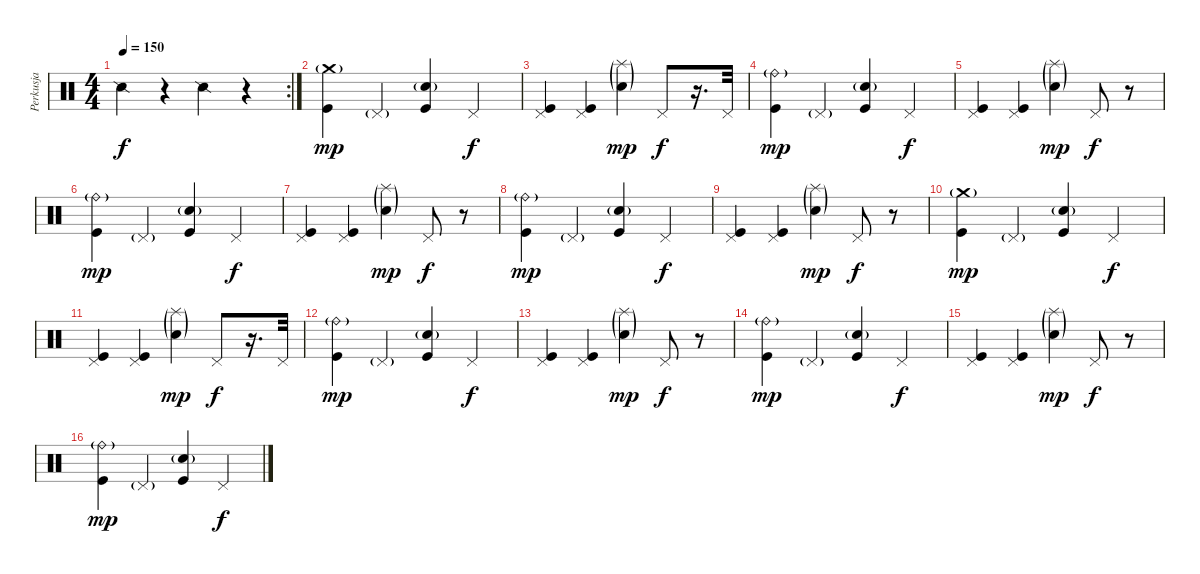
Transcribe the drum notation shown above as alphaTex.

\track ("Perkusja" "Perkusja") {instrument percussion}
\staff {score}
\articulation defaults
\rc 2
\ts (4 4)
\tempo 150
\clef neutral
\ks c "Snare (side stick) 2".4{dy f}
r.4 "Snare (side stick) 2".4 r.4 |
("Crash medium (hit)"{g} "Kick (hit)").4{dy mp} "Pedal Hi-Hat (hit)"{g}.4 ("Snare (hit) 2"{g} "Kick (hit)").4 "Pedal Hi-Hat (hit)".4{dy f} |
("Pedal Hi-Hat (hit)" "Kick (hit)").4 ("Pedal Hi-Hat (hit)" "Kick (hit)").4 ("Splash (hit)"{g} "Snare (hit) 2"{g}).4{dy mp} "Pedal Hi-Hat (hit)".8{dy f} r.16{d} "Pedal Hi-Hat (hit)".32 |
("Ride (bell)"{g} "Kick (hit)").4{dy mp} "Pedal Hi-Hat (hit)"{g}.4 ("Snare (hit) 2"{g} "Kick (hit)").4 "Pedal Hi-Hat (hit)".4{dy f} |
("Pedal Hi-Hat (hit)" "Kick (hit)").4 ("Pedal Hi-Hat (hit)" "Kick (hit)").4 ("Splash (hit)"{g} "Snare (hit) 2"{g}).4{dy mp} "Pedal Hi-Hat (hit)".8{dy f} r.8 |
("Ride (bell)"{g} "Kick (hit)").4{dy mp} "Pedal Hi-Hat (hit)"{g}.4 ("Snare (hit) 2"{g} "Kick (hit)").4 "Pedal Hi-Hat (hit)".4{dy f} |
("Pedal Hi-Hat (hit)" "Kick (hit)").4 ("Pedal Hi-Hat (hit)" "Kick (hit)").4 ("Splash (hit)"{g} "Snare (hit) 2"{g}).4{dy mp} "Pedal Hi-Hat (hit)".8{dy f} r.8 |
("Ride (bell)"{g} "Kick (hit)").4{dy mp} "Pedal Hi-Hat (hit)"{g}.4 ("Snare (hit) 2"{g} "Kick (hit)").4 "Pedal Hi-Hat (hit)".4{dy f} |
("Pedal Hi-Hat (hit)" "Kick (hit)").4 ("Pedal Hi-Hat (hit)" "Kick (hit)").4 ("Splash (hit)"{g} "Snare (hit) 2"{g}).4{dy mp} "Pedal Hi-Hat (hit)".8{dy f} r.8 |
("Crash medium (hit)"{g} "Kick (hit)").4{dy mp} "Pedal Hi-Hat (hit)"{g}.4 ("Snare (hit) 2"{g} "Kick (hit)").4 "Pedal Hi-Hat (hit)".4{dy f} |
("Pedal Hi-Hat (hit)" "Kick (hit)").4 ("Pedal Hi-Hat (hit)" "Kick (hit)").4 ("Splash (hit)"{g} "Snare (hit) 2"{g}).4{dy mp} "Pedal Hi-Hat (hit)".8{dy f} r.16{d} "Pedal Hi-Hat (hit)".32 |
("Ride (bell)"{g} "Kick (hit)").4{dy mp} "Pedal Hi-Hat (hit)"{g}.4 ("Snare (hit) 2"{g} "Kick (hit)").4 "Pedal Hi-Hat (hit)".4{dy f} |
("Pedal Hi-Hat (hit)" "Kick (hit)").4 ("Pedal Hi-Hat (hit)" "Kick (hit)").4 ("Splash (hit)"{g} "Snare (hit) 2"{g}).4{dy mp} "Pedal Hi-Hat (hit)".8{dy f} r.8 |
("Ride (bell)"{g} "Kick (hit)").4{dy mp} "Pedal Hi-Hat (hit)"{g}.4 ("Snare (hit) 2"{g} "Kick (hit)").4 "Pedal Hi-Hat (hit)".4{dy f} |
("Pedal Hi-Hat (hit)" "Kick (hit)").4 ("Pedal Hi-Hat (hit)" "Kick (hit)").4 ("Splash (hit)"{g} "Snare (hit) 2"{g}).4{dy mp} "Pedal Hi-Hat (hit)".8{dy f} r.8 |
("Ride (bell)"{g} "Kick (hit)").4{dy mp} "Pedal Hi-Hat (hit)"{g}.4 ("Snare (hit) 2"{g} "Kick (hit)").4 "Pedal Hi-Hat (hit)".4{dy f}
